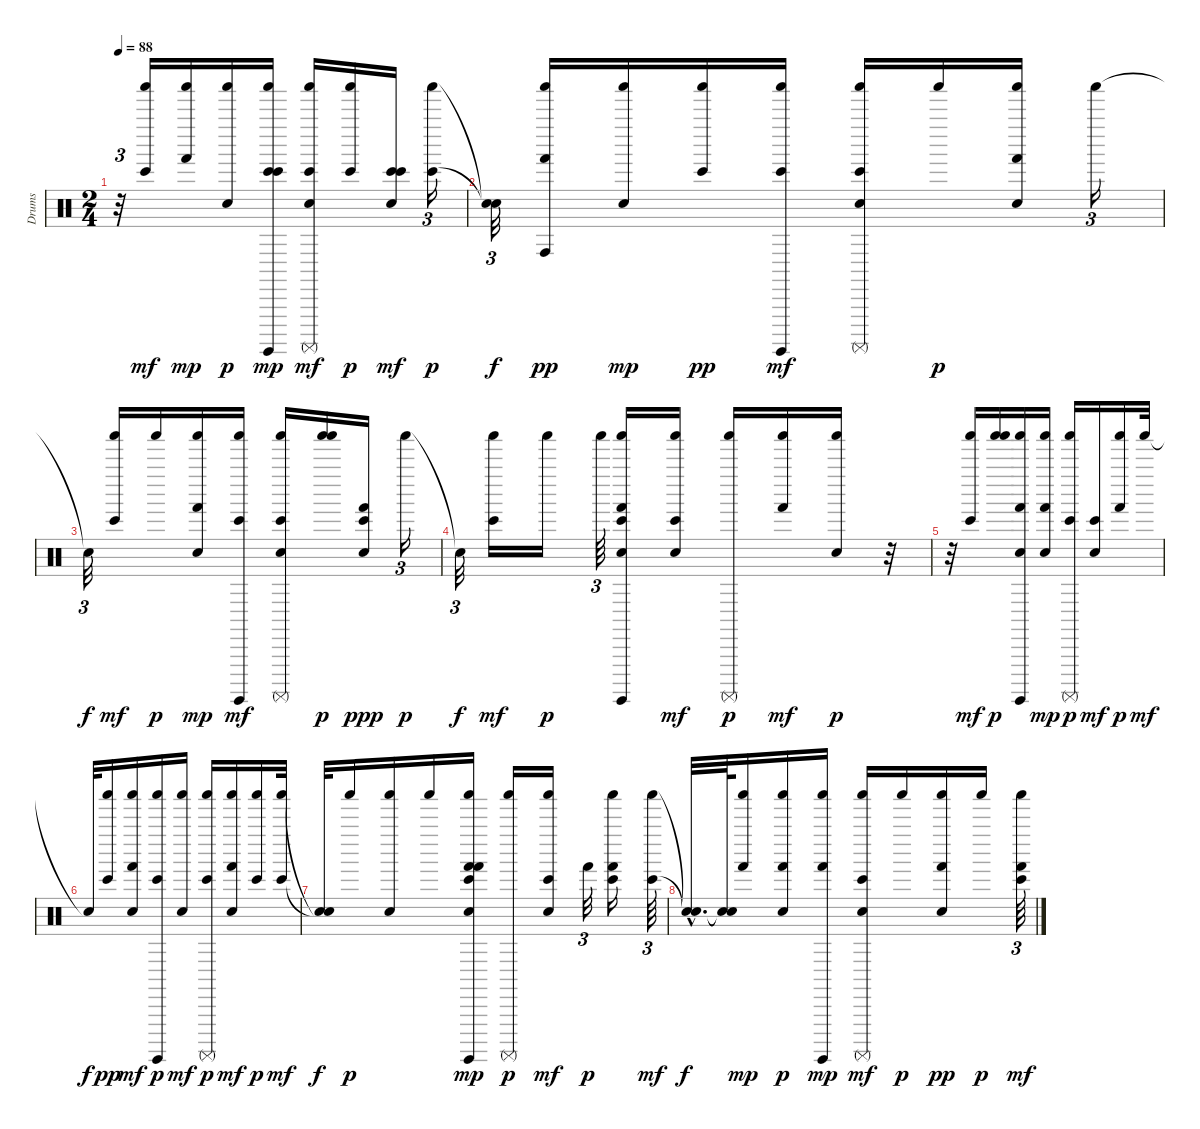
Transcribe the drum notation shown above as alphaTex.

\track ("Drums" "Drums") {instrument percussion}
\staff {score}
\articulation defaults
\ts (2 4)
\tempo 88
\clef neutral
\ks c
r.32{tu (3 2) dy p} ("Shaker (hit)" "Bongo High (hit)").16{dy mf} ("Shaker (hit)" "Hand (hit)").16{dy mp} ("Hand Clap (hit)" "Shaker (hit)").16{dy p} ("Shaker (hit)" "Surdo (hit)" "Bongo High (hit)" "Bongo High (hit)").16{dy mp} ("Shaker (hit)" "Hand Clap (hit)" "Bongo High (hit)" "Surdo (mute)").16{dy mf} ("Shaker (hit)" "Bongo High (hit)").16{dy p} ("Bongo High (hit)" "Hand Clap (hit)" "Bongo High (hit)").16{dy mf} ("Shaker (hit)" "Bongo High (hit)").16{tu (3 2) dy p} |
("Snare (hit)"{t} "Snare (hit)"{t}).32{tu (3 2) dy f} ("Shaker (hit)" "Hand (hit)" "Conga high (hit)").16{dy pp} ("Shaker (hit)" "Hand Clap (hit)").16{dy mp} ("Shaker (hit)" "Bongo High (hit)").16{dy pp} ("Shaker (hit)" "Bongo High (hit)" "Surdo (hit)").16{dy mf} ("Hand Clap (hit)" "Shaker (hit)" "Bongo High (hit)" "Surdo (mute)").16 "Shaker (hit)".16{dy p} ("Hand Clap (hit)" "Hand (hit)" "Shaker (hit)").16 "Shaker (hit)".16{tu (3 2)} |
"Snare (hit)"{t}.32{tu (3 2) dy f} ("Shaker (hit)" "Bongo High (hit)").16{dy mf} "Shaker (hit)".16{dy p} ("Hand Clap (hit)" "Shaker (hit)" "Hand (hit)").16{dy mp} ("Shaker (hit)" "Bongo High (hit)" "Surdo (hit)").16{dy mf} ("Shaker (hit)" "Hand Clap (hit)" "Surdo (mute)" "Bongo High (hit)").16 ("Shaker (hit)" "Shaker (hit)").16{dy p} ("Hand Clap (hit)" "Hand (hit)" "Bongo High (hit)").16{dy ppp} "Shaker (hit)".16{tu (3 2) dy p} |
"Snare (hit)"{t}.32{tu (3 2) dy f} ("Shaker (hit)" "Bongo High (hit)").16{dy mf} "Shaker (hit)".16{dy p} "Shaker (hit)".64{tu (3 2)} ("Hand Clap (hit)" "Hand (hit)" "Bongo High (hit)" "Shaker (hit)" "Surdo (hit)").16 ("Shaker (hit)" "Hand Clap (hit)" "Bongo High (hit)").16{dy mf} ("Surdo (mute)" "Shaker (hit)").16{dy p} ("Shaker (hit)" "Hand (hit)").16{dy mf} ("Hand Clap (hit)" "Shaker (hit)").16{dy p} r.32 |
r.32 ("Bongo High (hit)" "Shaker (hit)").16{dy mf} ("Shaker (hit)" "Shaker (hit)").16{dy p} ("Hand Clap (hit)" "Hand (hit)" "Shaker (hit)" "Surdo (hit)").16 ("Hand (hit)" "Shaker (hit)" "Hand Clap (hit)").16{dy mp} ("Bongo High (hit)" "Surdo (mute)" "Shaker (hit)").16{dy p} ("Bongo High (hit)" "Hand Clap (hit)").16{dy mf} ("Hand (hit)" "Shaker (hit)").16{dy p} "Shaker (hit)".32{dy mf} |
"Snare (hit)"{t}.32{dy f} ("Bongo High (hit)" "Shaker (hit)").16{dy pp} ("Shaker (hit)" "Hand Clap (hit)" "Hand (hit)").16{dy mf} ("Surdo (hit)" "Bongo High (hit)" "Shaker (hit)").16{dy p} ("Shaker (hit)" "Hand Clap (hit)").16{dy mf} ("Bongo High (hit)" "Surdo (mute)" "Shaker (hit)").16{dy p} ("Shaker (hit)" "Hand Clap (hit)" "Hand (hit)").16{dy mf} ("Bongo High (hit)" "Shaker (hit)").16{dy p} ("Shaker (hit)" "Bongo High (hit)").32{dy mf} |
("Snare (hit)"{t} "Snare (hit)"{t}).32{dy f} "Shaker (hit)".16{dy p} ("Hand Clap (hit)" "Shaker (hit)").16 "Shaker (hit)".16 ("Surdo (hit)" "Hand (hit)" "Bongo High (hit)" "Hand Clap (hit)" "Shaker (hit)" "Hand (hit)").16{dy mp} ("Surdo (mute)" "Shaker (hit)").16{dy p} ("Bongo High (hit)" "Shaker (hit)" "Hand Clap (hit)").16{dy mf} "Hand (hit)".32{tu (3 2) dy p} ("Bongo High (hit)" "Shaker (hit)" "Hand (hit)").16 ("Shaker (hit)" "Bongo High (hit)").64{tu (3 2) dy mf} |
("Snare (hit)"{hac t} "Snare (hit)"{hac t}).32{d dy f} ("Snare (hit)"{t} "Snare (hit)"{t}).64 ("Shaker (hit)" "Hand (hit)").16{dy mp} ("Shaker (hit)" "Hand Clap (hit)" "Hand (hit)").16{dy p} ("Shaker (hit)" "Surdo (hit)" "Hand (hit)").16{dy mp} ("Hand Clap (hit)" "Shaker (hit)" "Bongo High (hit)" "Surdo (mute)").16{dy mf} "Shaker (hit)".16{dy p} ("Hand (hit)" "Hand Clap (hit)" "Shaker (hit)").16{dy pp} "Shaker (hit)".16{dy p} ("Bongo High (hit)" "Hand (hit)" "Shaker (hit)").64{tu (3 2) dy mf}
